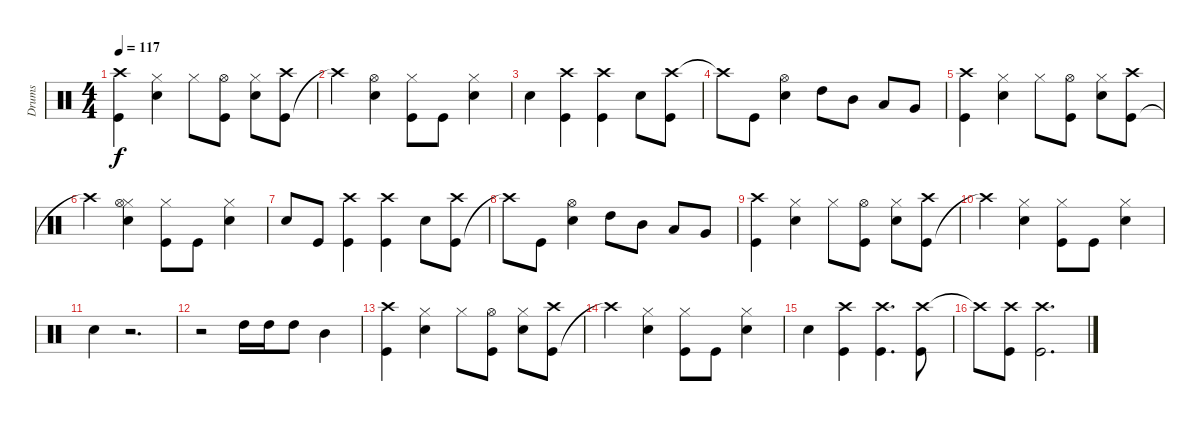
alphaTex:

\track ("Drums" "Drums") {instrument percussion}
\staff {score}
\articulation defaults
\ts (4 4)
\tempo 117
\clef neutral
\ks c
("Crash high (hit)" "Kick (hit)").4{dy f} ("Hi-Hat (closed)" "Snare (hit) 2").4 "Hi-Hat (closed)".8 ("Kick (hit)" "Hi-Hat (open)").8 ("Snare (hit) 2" "Hi-Hat (closed)").8 ("Kick (hit)" "Crash high (hit)").8 |
"Crash high (hit)"{t}.4 ("Snare (hit) 2" "Hi-Hat (open)").4 ("Kick (hit)" "Hi-Hat (closed)").8 "Kick (hit)".8 ("Hi-Hat (closed)" "Snare (hit) 2").4 |
"Snare (hit) 2".4 ("Crash high (hit)" "Kick (hit)").4 ("Crash high (hit)" "Kick (hit)").4 "Snare (hit) 2".8 ("Crash high (hit)" "Kick (hit)").8 |
"Crash high (hit)"{t}.8 "Kick (hit)".8 ("Hi-Hat (open)" "Snare (hit) 2").4 "High Tom (hit)".8 "Mid Tom (hit)".8 "Low Tom (hit)".8 "Very Low Tom (hit)".8 |
("Crash high (hit)" "Kick (hit)").4 ("Hi-Hat (closed)" "Snare (hit) 2").4 "Hi-Hat (closed)".8 ("Kick (hit)" "Hi-Hat (open)").8 ("Snare (hit) 2" "Hi-Hat (closed)").8 ("Kick (hit)" "Crash high (hit)").8 |
"Crash high (hit)"{t}.4 ("Snare (hit) 2" "Hi-Hat (closed)" "Hi-Hat (open)").4 ("Kick (hit)" "Hi-Hat (closed)").8 "Kick (hit)".8 ("Hi-Hat (closed)" "Snare (hit) 2").4 |
"Snare (hit) 2".8 "Kick (hit)".8 ("Kick (hit)" "Crash high (hit)").4 ("Crash high (hit)" "Kick (hit)").4 "Snare (hit) 2".8 ("Kick (hit)" "Crash high (hit)").8 |
"Crash high (hit)"{t}.8 "Kick (hit)".8 ("Snare (hit) 2" "Hi-Hat (open)").4 "High Tom (hit)".8 "Mid Tom (hit)".8 "Low Tom (hit)".8 "Very Low Tom (hit)".8 |
("Crash high (hit)" "Kick (hit)").4 ("Hi-Hat (closed)" "Snare (hit) 2").4 "Hi-Hat (closed)".8 ("Kick (hit)" "Hi-Hat (open)").8 ("Snare (hit) 2" "Hi-Hat (closed)").8 ("Kick (hit)" "Crash high (hit)").8 |
"Crash high (hit)"{t}.4 ("Snare (hit) 2" "Hi-Hat (closed)").4 ("Kick (hit)" "Hi-Hat (closed)").8 "Kick (hit)".8 ("Hi-Hat (closed)" "Snare (hit) 2").4 |
"Snare (hit) 2".4 r.2{d} |
r.2 "High Tom (hit)".16 "High Tom (hit)".16 "High Tom (hit)".8 "Mid Tom (hit)".4 |
("Crash high (hit)" "Kick (hit)").4 ("Hi-Hat (closed)" "Snare (hit) 2").4 "Hi-Hat (closed)".8 ("Kick (hit)" "Hi-Hat (open)").8 ("Snare (hit) 2" "Hi-Hat (closed)").8 ("Kick (hit)" "Crash high (hit)").8 |
"Crash high (hit)"{t}.4 ("Snare (hit) 2" "Hi-Hat (closed)").4 ("Kick (hit)" "Hi-Hat (closed)").8 "Kick (hit)".8 ("Hi-Hat (closed)" "Snare (hit) 2").4 |
"Snare (hit) 2".4 ("Crash high (hit)" "Kick (hit)").4 ("Crash high (hit)" "Kick (hit)").4{d} ("Crash high (hit)" "Kick (hit)").8 |
"Crash high (hit)"{t}.8 ("Crash high (hit)" "Kick (hit)").8 ("Crash high (hit)" "Kick (hit)").2{d}
